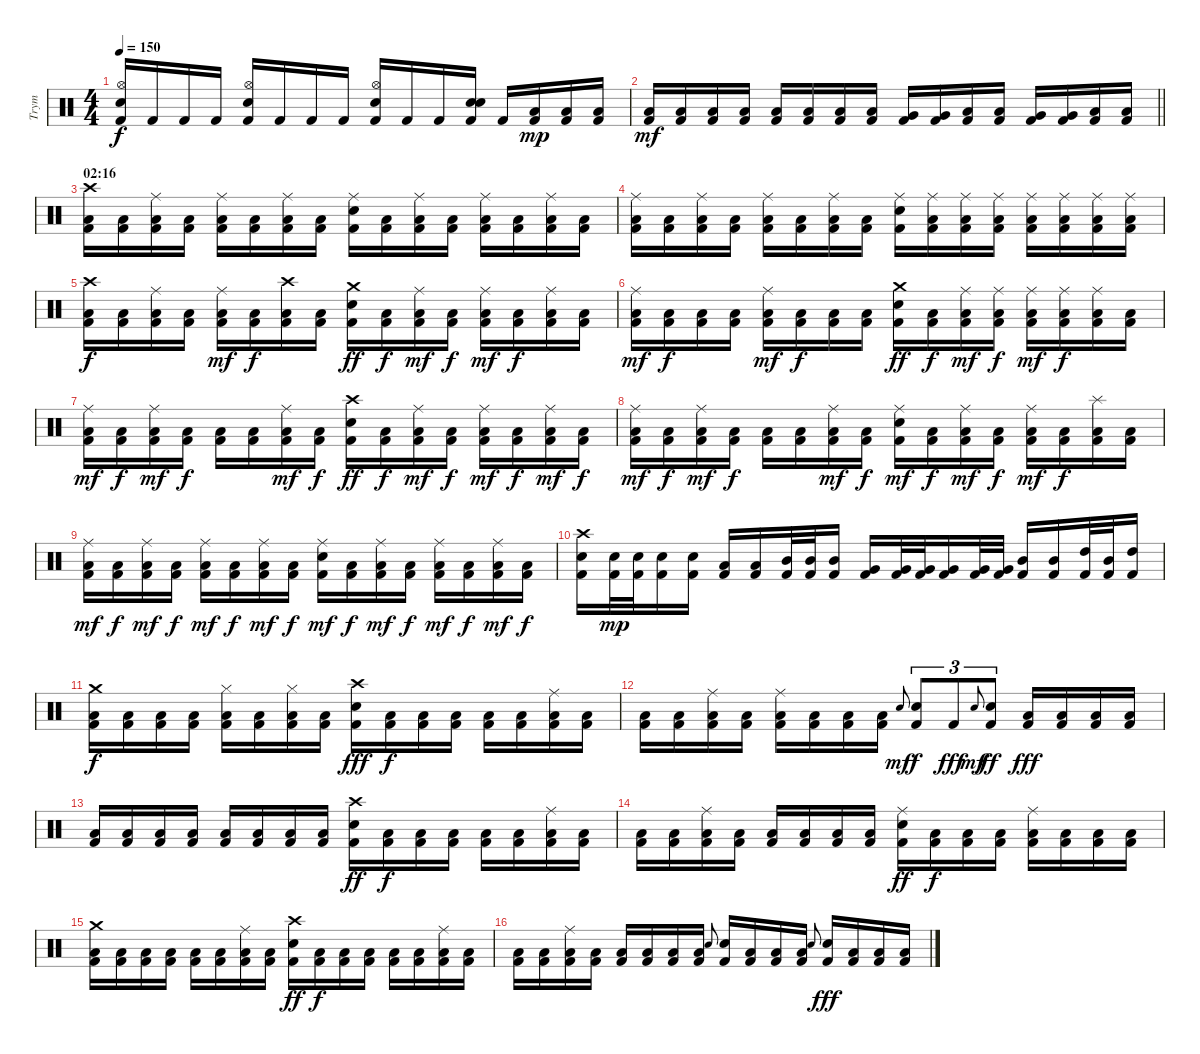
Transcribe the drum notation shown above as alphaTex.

\track ("Trym" "Trym") {instrument percussion}
\staff {score}
\articulation defaults
\ts (4 4)
\tempo 150
\clef neutral
\ks c
("Snare (hit) 2" "Hi-Hat (open)" "Kick (hit) 2").16{dy f} "Kick (hit) 2".16 "Kick (hit) 2".16 "Kick (hit) 2".16 ("Snare (hit) 2" "Hi-Hat (open)" "Kick (hit) 2").16 "Kick (hit) 2".16 "Kick (hit) 2".16 "Kick (hit) 2".16 ("Snare (hit) 2" "Hi-Hat (open)" "Kick (hit) 2").16 "Kick (hit) 2".16 "Kick (hit) 2".16 ("Snare (hit) 2" "Snare (hit) 2" "Kick (hit) 2").16 "Kick (hit) 2".16 ("Low Floor Tom (hit)" "Kick (hit) 2").16{dy mp} ("Low Floor Tom (hit)" "Kick (hit) 2").16 ("Low Floor Tom (hit)" "Kick (hit) 2").16 |
\barLineRight lightlight
("Low Tom (hit)" "Kick (hit) 2").16{dy mf} ("Low Tom (hit)" "Kick (hit) 2").16 ("Low Tom (hit)" "Kick (hit) 2").16 ("Low Tom (hit)" "Kick (hit) 2").16 ("Low Tom (hit)" "Kick (hit) 2").16 ("Low Tom (hit)" "Kick (hit) 2").16 ("Low Floor Tom (hit)" "Kick (hit) 2").16 ("Low Floor Tom (hit)" "Kick (hit) 2").16 ("Very Low Tom (hit)" "Kick (hit) 2").16 ("Very Low Tom (hit)" "Kick (hit) 2").16 ("Low Floor Tom (hit)" "Kick (hit) 2").16 ("Low Floor Tom (hit)" "Kick (hit) 2").16 ("Very Low Tom (hit)" "Kick (hit) 2").16 ("Very Low Tom (hit)" "Kick (hit) 2").16 ("Low Floor Tom (hit)" "Kick (hit) 2").16 ("Low Floor Tom (hit)" "Kick (hit) 2").16 |
\section ("" "02:16")
("Crash high (hit)" "Low Floor Tom (hit)" "Kick (hit) 2").16 ("Low Floor Tom (hit)" "Kick (hit) 2").16 ("Ride (middle)" "Low Floor Tom (hit)" "Kick (hit) 2").16 ("Low Floor Tom (hit)" "Kick (hit) 2").16 ("Ride (middle)" "Low Floor Tom (hit)" "Kick (hit) 2").16 ("Low Floor Tom (hit)" "Kick (hit) 2").16 ("Ride (middle)" "Low Floor Tom (hit)" "Kick (hit) 2").16 ("Low Floor Tom (hit)" "Kick (hit) 2").16 ("Snare (hit) 2" "Ride (middle)" "Kick (hit) 2").16 ("Low Floor Tom (hit)" "Kick (hit) 2").16 ("Ride (middle)" "Low Floor Tom (hit)" "Kick (hit) 2").16 ("Low Floor Tom (hit)" "Kick (hit) 2").16 ("Ride (middle)" "Low Floor Tom (hit)" "Kick (hit) 2").16 ("Low Floor Tom (hit)" "Kick (hit) 2").16 ("Ride (middle)" "Low Floor Tom (hit)" "Kick (hit) 2").16 ("Low Floor Tom (hit)" "Kick (hit) 2").16 |
("Ride (middle)" "Low Floor Tom (hit)" "Kick (hit) 2").16 ("Low Floor Tom (hit)" "Kick (hit) 2").16 ("Ride (middle)" "Low Floor Tom (hit)" "Kick (hit) 2").16 ("Low Floor Tom (hit)" "Kick (hit) 2").16 ("Ride (middle)" "Low Floor Tom (hit)" "Kick (hit) 2").16 ("Low Floor Tom (hit)" "Kick (hit) 2").16 ("Ride (middle)" "Low Floor Tom (hit)" "Kick (hit) 2").16 ("Low Floor Tom (hit)" "Kick (hit) 2").16 ("Snare (hit) 2" "Ride (middle)" "Kick (hit) 2").16 ("Ride (middle)" "Low Floor Tom (hit)" "Kick (hit) 2").16 ("Ride (middle)" "Low Floor Tom (hit)" "Kick (hit) 2").16 ("Ride (middle)" "Low Floor Tom (hit)" "Kick (hit) 2").16 ("Ride (middle)" "Low Floor Tom (hit)" "Kick (hit) 2").16 ("Ride (middle)" "Low Floor Tom (hit)" "Kick (hit) 2").16 ("Ride (middle)" "Low Floor Tom (hit)" "Kick (hit) 2").16 ("Ride (middle)" "Low Floor Tom (hit)" "Kick (hit) 2").16 |
("Crash high (hit)" "Low Floor Tom (hit)" "Kick (hit) 2").16{dy f} ("Low Floor Tom (hit)" "Kick (hit) 2").16 ("Ride (middle)" "Low Floor Tom (hit)" "Kick (hit) 2").16 ("Low Floor Tom (hit)" "Kick (hit) 2").16 ("Ride (middle)" "Low Floor Tom (hit)" "Kick (hit) 2").16{dy mf} ("Low Floor Tom (hit)" "Kick (hit) 2").16{dy f} ("Crash high (hit)" "Low Floor Tom (hit)" "Kick (hit) 2").16 ("Low Floor Tom (hit)" "Kick (hit) 2").16 ("Snare (hit) 2" "Crash medium (hit)" "Kick (hit) 2").16{dy ff} ("Low Floor Tom (hit)" "Kick (hit) 2").16{dy f} ("Ride (middle)" "Low Floor Tom (hit)" "Kick (hit) 2").16{dy mf} ("Low Floor Tom (hit)" "Kick (hit) 2").16{dy f} ("Ride (middle)" "Low Floor Tom (hit)" "Kick (hit) 2").16{dy mf} ("Low Floor Tom (hit)" "Kick (hit) 2").16{dy f} ("Ride (middle)" "Low Floor Tom (hit)" "Kick (hit) 2").16 ("Low Floor Tom (hit)" "Kick (hit) 2").16 |
("Ride (middle)" "Low Floor Tom (hit)" "Kick (hit) 2").16{dy mf} ("Low Floor Tom (hit)" "Kick (hit) 2").16{dy f} ("Low Floor Tom (hit)" "Kick (hit) 2").16 ("Low Floor Tom (hit)" "Kick (hit) 2").16 ("Ride (middle)" "Low Floor Tom (hit)" "Kick (hit) 2").16{dy mf} ("Low Floor Tom (hit)" "Kick (hit) 2").16{dy f} ("Low Floor Tom (hit)" "Kick (hit) 2").16 ("Low Floor Tom (hit)" "Kick (hit) 2").16 ("Snare (hit) 2" "Crash medium (hit)" "Kick (hit) 2").16{dy ff} ("Low Floor Tom (hit)" "Kick (hit) 2").16{dy f} ("Ride (middle)" "Low Floor Tom (hit)" "Kick (hit) 2").16{dy mf} ("Ride (middle)" "Low Floor Tom (hit)" "Kick (hit) 2").16{dy f} ("Ride (middle)" "Low Floor Tom (hit)" "Kick (hit) 2").16{dy mf} ("Ride (middle)" "Low Floor Tom (hit)" "Kick (hit) 2").16{dy f} ("Ride (middle)" "Low Floor Tom (hit)" "Kick (hit) 2").16 ("Low Floor Tom (hit)" "Kick (hit) 2").16 |
("Ride (middle)" "Low Floor Tom (hit)" "Kick (hit) 2").16{dy mf} ("Low Floor Tom (hit)" "Kick (hit) 2").16{dy f} ("Ride (middle)" "Low Floor Tom (hit)" "Kick (hit) 2").16{dy mf} ("Low Floor Tom (hit)" "Kick (hit) 2").16{dy f} ("Low Floor Tom (hit)" "Kick (hit) 2").16 ("Low Floor Tom (hit)" "Kick (hit) 2").16 ("Ride (middle)" "Low Floor Tom (hit)" "Kick (hit) 2").16{dy mf} ("Low Floor Tom (hit)" "Kick (hit) 2").16{dy f} ("Snare (hit) 2" "Crash high (hit)" "Kick (hit) 2").16{dy ff} ("Low Floor Tom (hit)" "Kick (hit) 2").16{dy f} ("Ride (middle)" "Low Floor Tom (hit)" "Kick (hit) 2").16{dy mf} ("Low Floor Tom (hit)" "Kick (hit) 2").16{dy f} ("Ride (middle)" "Low Floor Tom (hit)" "Kick (hit) 2").16{dy mf} ("Low Floor Tom (hit)" "Kick (hit) 2").16{dy f} ("Ride (middle)" "Low Floor Tom (hit)" "Kick (hit) 2").16{dy mf} ("Low Floor Tom (hit)" "Kick (hit) 2").16{dy f} |
("Ride (middle)" "Low Floor Tom (hit)" "Kick (hit) 2").16{dy mf} ("Low Floor Tom (hit)" "Kick (hit) 2").16{dy f} ("Ride (middle)" "Low Floor Tom (hit)" "Kick (hit) 2").16{dy mf} ("Low Floor Tom (hit)" "Kick (hit) 2").16{dy f} ("Low Floor Tom (hit)" "Kick (hit) 2").16 ("Low Floor Tom (hit)" "Kick (hit) 2").16 ("Ride (middle)" "Low Floor Tom (hit)" "Kick (hit) 2").16{dy mf} ("Low Floor Tom (hit)" "Kick (hit) 2").16{dy f} ("Snare (hit) 2" "Ride (middle)" "Kick (hit) 2").16{dy mf} ("Low Floor Tom (hit)" "Kick (hit) 2").16{dy f} ("Ride (middle)" "Low Floor Tom (hit)" "Kick (hit) 2").16{dy mf} ("Low Floor Tom (hit)" "Kick (hit) 2").16{dy f} ("Ride (middle)" "Low Floor Tom (hit)" "Kick (hit) 2").16{dy mf} ("Low Floor Tom (hit)" "Kick (hit) 2").16{dy f} ("Splash (hit)" "Low Floor Tom (hit)" "Kick (hit) 2").16 ("Low Floor Tom (hit)" "Kick (hit) 2").16 |
("Ride (middle)" "Low Floor Tom (hit)" "Kick (hit) 2").16{dy mf} ("Low Floor Tom (hit)" "Kick (hit) 2").16{dy f} ("Ride (middle)" "Low Floor Tom (hit)" "Kick (hit) 2").16{dy mf} ("Low Floor Tom (hit)" "Kick (hit) 2").16{dy f} ("Ride (middle)" "Low Floor Tom (hit)" "Kick (hit) 2").16{dy mf} ("Low Floor Tom (hit)" "Kick (hit) 2").16{dy f} ("Ride (middle)" "Low Floor Tom (hit)" "Kick (hit) 2").16{dy mf} ("Low Floor Tom (hit)" "Kick (hit) 2").16{dy f} ("Snare (hit) 2" "Ride (middle)" "Kick (hit) 2").16{dy mf} ("Low Floor Tom (hit)" "Kick (hit) 2").16{dy f} ("Ride (middle)" "Low Floor Tom (hit)" "Kick (hit) 2").16{dy mf} ("Low Floor Tom (hit)" "Kick (hit) 2").16{dy f} ("Ride (middle)" "Low Floor Tom (hit)" "Kick (hit) 2").16{dy mf} ("Low Floor Tom (hit)" "Kick (hit) 2").16{dy f} ("Ride (middle)" "Low Floor Tom (hit)" "Kick (hit) 2").16{dy mf} ("Low Floor Tom (hit)" "Kick (hit) 2").16{dy f} |
("Crash high (hit)" "Snare (hit) 2" "Kick (hit) 2").16 ("Snare (hit) 2" "Kick (hit) 2").32{dy mp} ("Snare (hit) 2" "Kick (hit) 2").32 ("Snare (hit) 2" "Kick (hit) 2").16 ("Snare (hit) 2" "Kick (hit) 2").16 ("Low Tom (hit)" "Kick (hit) 2").16 ("Low Tom (hit)" "Kick (hit) 2").16 ("Mid Tom (hit)" "Kick (hit) 2").32 ("Mid Tom (hit)" "Kick (hit) 2").32 ("Mid Tom (hit)" "Kick (hit) 2").16 ("Very Low Tom (hit)" "Kick (hit) 2").16 ("Very Low Tom (hit)" "Kick (hit) 2").32 ("Very Low Tom (hit)" "Kick (hit) 2").32 ("Very Low Tom (hit)" "Kick (hit) 2").16 ("Very Low Tom (hit)" "Kick (hit) 2").32 ("Very Low Tom (hit)" "Kick (hit) 2").32 ("Mid Tom (hit)" "Kick (hit) 2").16 ("Mid Tom (hit)" "Kick (hit) 2").16 ("High Tom (hit)" "Kick (hit) 2").32 ("Mid Tom (hit)" "Kick (hit) 2").32 ("High Tom (hit)" "Kick (hit) 2").16 |
("Crash medium (hit)" "Low Floor Tom (hit)" "Kick (hit) 2").16{dy f} ("Low Floor Tom (hit)" "Kick (hit) 2").16 ("Low Floor Tom (hit)" "Kick (hit) 2").16 ("Low Floor Tom (hit)" "Kick (hit) 2").16 ("Hi-Hat (closed)" "Low Floor Tom (hit)" "Kick (hit) 2").16 ("Low Floor Tom (hit)" "Kick (hit) 2").16 ("Hi-Hat (closed)" "Low Floor Tom (hit)" "Kick (hit) 2").16 ("Low Floor Tom (hit)" "Kick (hit) 2").16 ("Snare (hit) 2" "Crash high (hit)" "Kick (hit) 2").16{dy fff} ("Low Floor Tom (hit)" "Kick (hit) 2").16{dy f} ("Low Floor Tom (hit)" "Kick (hit) 2").16 ("Low Floor Tom (hit)" "Kick (hit) 2").16 ("Low Floor Tom (hit)" "Kick (hit) 2").16 ("Low Floor Tom (hit)" "Kick (hit) 2").16 ("Ride (middle)" "Low Floor Tom (hit)" "Kick (hit) 2").16 ("Low Floor Tom (hit)" "Kick (hit) 2").16 |
("Low Floor Tom (hit)" "Kick (hit) 2").16 ("Low Floor Tom (hit)" "Kick (hit) 2").16 ("Ride (middle)" "Low Floor Tom (hit)" "Kick (hit) 2").16 ("Low Floor Tom (hit)" "Kick (hit) 2").16 ("Ride (middle)" "Low Floor Tom (hit)" "Kick (hit) 2").16 ("Low Floor Tom (hit)" "Kick (hit) 2").16 ("Low Floor Tom (hit)" "Kick (hit) 2").16 ("Low Floor Tom (hit)" "Kick (hit) 2").16 "Snare (hit) 2".8{gr onbeat dy mf} ("Snare (hit) 2" "Kick (hit) 2").8{tu (3 2) dy f} "Kick (hit) 2".8{tu (3 2) dy fff} "Snare (hit) 2".8{gr onbeat dy mf} ("Snare (hit) 2" "Kick (hit) 2").8{tu (3 2) dy ff} ("Low Floor Tom (hit)" "Kick (hit) 2").16{dy fff} ("Low Floor Tom (hit)" "Kick (hit) 2").16 ("Low Floor Tom (hit)" "Kick (hit) 2").16 ("Low Floor Tom (hit)" "Kick (hit) 2").16 |
("Low Floor Tom (hit)" "Kick (hit) 2").16 ("Low Floor Tom (hit)" "Kick (hit) 2").16 ("Low Floor Tom (hit)" "Kick (hit) 2").16 ("Low Floor Tom (hit)" "Kick (hit) 2").16 ("Low Floor Tom (hit)" "Kick (hit) 2").16 ("Low Floor Tom (hit)" "Kick (hit) 2").16 ("Low Floor Tom (hit)" "Kick (hit) 2").16 ("Low Floor Tom (hit)" "Kick (hit) 2").16 ("Snare (hit) 2" "Crash high (hit)" "Kick (hit) 2").16{dy ff} ("Low Floor Tom (hit)" "Kick (hit) 2").16{dy f} ("Low Floor Tom (hit)" "Kick (hit) 2").16 ("Low Floor Tom (hit)" "Kick (hit) 2").16 ("Low Floor Tom (hit)" "Kick (hit) 2").16 ("Low Floor Tom (hit)" "Kick (hit) 2").16 ("Ride (middle)" "Low Floor Tom (hit)" "Kick (hit) 2").16 ("Low Floor Tom (hit)" "Kick (hit) 2").16 |
("Low Floor Tom (hit)" "Kick (hit) 2").16 ("Low Floor Tom (hit)" "Kick (hit) 2").16 ("Ride (middle)" "Low Floor Tom (hit)" "Kick (hit) 2").16 ("Low Floor Tom (hit)" "Kick (hit) 2").16 ("Low Floor Tom (hit)" "Kick (hit) 2").16 ("Low Floor Tom (hit)" "Kick (hit) 2").16 ("Low Floor Tom (hit)" "Kick (hit) 2").16 ("Low Floor Tom (hit)" "Kick (hit) 2").16 ("Snare (hit) 2" "Ride (middle)" "Kick (hit) 2").16{dy ff} ("Low Floor Tom (hit)" "Kick (hit) 2").16{dy f} ("Low Floor Tom (hit)" "Kick (hit) 2").16 ("Low Floor Tom (hit)" "Kick (hit) 2").16 ("Ride (middle)" "Low Floor Tom (hit)" "Kick (hit) 2").16 ("Low Floor Tom (hit)" "Kick (hit) 2").16 ("Low Floor Tom (hit)" "Kick (hit) 2").16 ("Low Floor Tom (hit)" "Kick (hit) 2").16 |
("Crash medium (hit)" "Low Floor Tom (hit)" "Kick (hit) 2").16 ("Low Floor Tom (hit)" "Kick (hit) 2").16 ("Low Floor Tom (hit)" "Kick (hit) 2").16 ("Low Floor Tom (hit)" "Kick (hit) 2").16 ("Low Floor Tom (hit)" "Kick (hit) 2").16 ("Low Floor Tom (hit)" "Kick (hit) 2").16 ("Ride (middle)" "Low Floor Tom (hit)" "Kick (hit) 2").16 ("Low Floor Tom (hit)" "Kick (hit) 2").16 ("Snare (hit) 2" "Crash high (hit)" "Kick (hit) 2").16{dy ff} ("Low Floor Tom (hit)" "Kick (hit) 2").16{dy f} ("Low Floor Tom (hit)" "Kick (hit) 2").16 ("Low Floor Tom (hit)" "Kick (hit) 2").16 ("Low Floor Tom (hit)" "Kick (hit) 2").16 ("Low Floor Tom (hit)" "Kick (hit) 2").16 ("Ride (middle)" "Low Floor Tom (hit)" "Kick (hit) 2").16 ("Low Floor Tom (hit)" "Kick (hit) 2").16 |
("Low Floor Tom (hit)" "Kick (hit) 2").16 ("Low Floor Tom (hit)" "Kick (hit) 2").16 ("Ride (middle)" "Low Floor Tom (hit)" "Kick (hit) 2").16 ("Low Floor Tom (hit)" "Kick (hit) 2").16 ("Low Floor Tom (hit)" "Kick (hit) 2").16 ("Low Floor Tom (hit)" "Kick (hit) 2").16 ("Low Floor Tom (hit)" "Kick (hit) 2").16 ("Low Floor Tom (hit)" "Kick (hit) 2").16 "Snare (hit) 2".8{gr onbeat} ("Snare (hit) 2" "Kick (hit) 2").16 ("Low Floor Tom (hit)" "Kick (hit) 2").16 ("Low Floor Tom (hit)" "Kick (hit) 2").16 ("Low Floor Tom (hit)" "Kick (hit) 2").16 "Snare (hit) 2".8{gr onbeat} ("Snare (hit) 2" "Kick (hit) 2").16{dy fff} ("Low Floor Tom (hit)" "Kick (hit) 2").16 ("Low Floor Tom (hit)" "Kick (hit) 2").16 ("Low Floor Tom (hit)" "Kick (hit) 2").16
